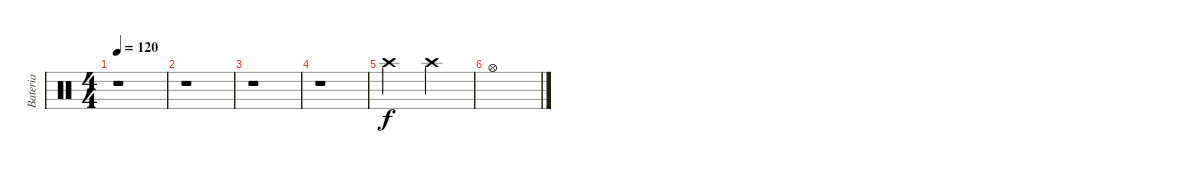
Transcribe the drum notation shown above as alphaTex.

\track ("Bateria" "Bateria") {instrument percussion}
\staff {score}
\articulation defaults
\ts (4 4)
\tempo 120
\clef neutral
\ks c
r.1{dy f} |
r.1 |
r.1 |
r.1 |
"Crash high (hit)".2 "Crash high (hit)".2 |
"Hi-Hat (open)".1
